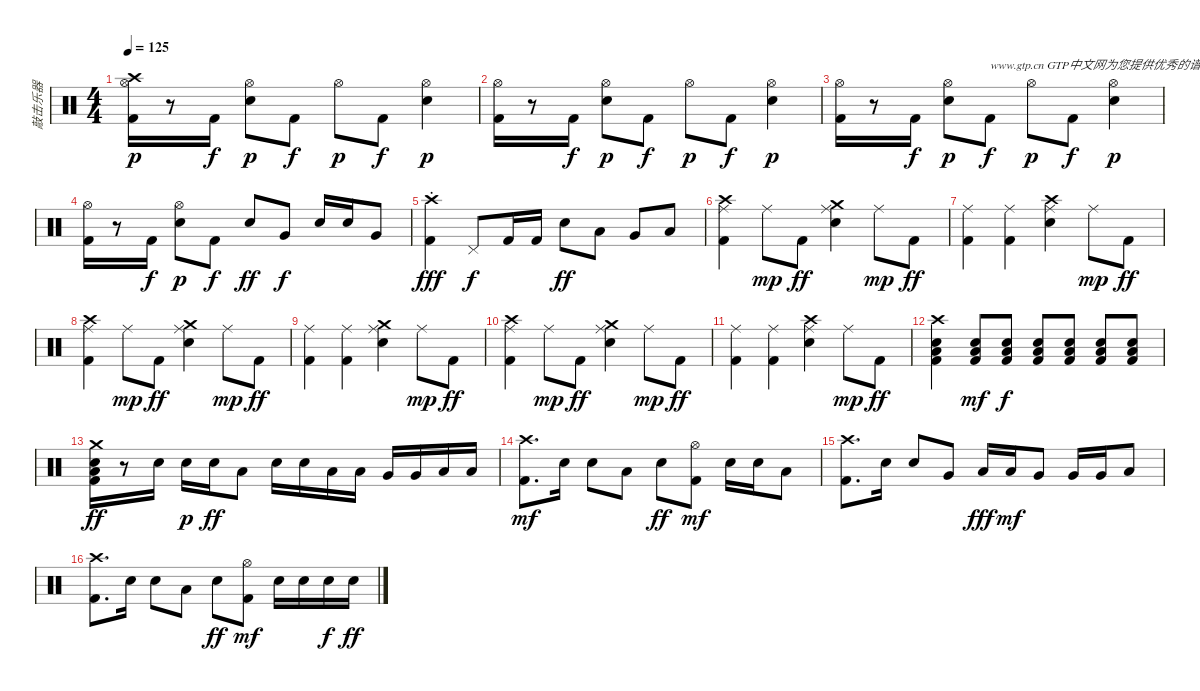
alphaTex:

\track ("敲击乐器" "敲击乐器") {instrument percussion}
\staff {score}
\articulation defaults
\ts (4 4)
\tempo 125
\clef neutral
\ks c
("Crash high (hit)" "Hi-Hat (open)" "Kick (hit) 2").16{dy p} r.8 "Kick (hit) 2".16{dy f} ("Hi-Hat (open)" "Snare (hit) 2").8{dy p} "Kick (hit) 2".8{dy f} "Hi-Hat (open)".8{dy p} "Kick (hit) 2".8{dy f} ("Hi-Hat (open)" "Snare (hit) 2").4{dy p} |
("Hi-Hat (open)" "Kick (hit) 2").16 r.8 "Kick (hit) 2".16{dy f} ("Hi-Hat (open)" "Snare (hit) 2").8{dy p} "Kick (hit) 2".8{dy f} "Hi-Hat (open)".8{dy p} "Kick (hit) 2".8{dy f} ("Hi-Hat (open)" "Snare (hit) 2").4{dy p} |
("Hi-Hat (open)" "Kick (hit) 2").16 r.8 "Kick (hit) 2".16{dy f} ("Hi-Hat (open)" "Snare (hit) 2").8{dy p} "Kick (hit) 2".8{txt "www.gtp.cn GTP中文网为您提供优秀的谱子" dy f} "Hi-Hat (open)".8{dy p} "Kick (hit) 2".8{dy f} ("Hi-Hat (open)" "Snare (hit) 2").4{dy p} |
("Hi-Hat (open)" "Kick (hit) 2").16 r.8 "Kick (hit) 2".16{dy f} ("Hi-Hat (open)" "Snare (hit) 2").8{dy p} "Kick (hit) 2".8{dy f} "Snare (hit) 2".8{dy ff} "Very Low Tom (hit)".8{dy f} "Snare (hit) 2".16 "Snare (hit) 2".16 "Very Low Tom (hit)".8 |
("Crash high (hit)"{st} "Kick (hit) 2"{st}).4{dy fff} "Pedal Hi-Hat (hit)".8{dy f} "Kick (hit) 2".16 "Kick (hit) 2".16 "Snare (hit) 2".8{dy ff} "Low Tom (hit)".8 "Very Low Tom (hit)".8 "Low Floor Tom (hit)".8 |
("Crash high (hit)" "Ride (middle)" "Kick (hit) 2").4 "Ride (middle)".8{dy mp} "Kick (hit) 2".8{dy ff} ("Crash medium (hit)" "Ride (middle)" "Snare (hit) 2").4 "Ride (middle)".8{dy mp} "Kick (hit) 2".8{dy ff} |
("Ride (middle)" "Kick (hit) 2").4 ("Ride (middle)" "Kick (hit) 2").4 ("Crash high (hit)" "Ride (middle)" "Snare (hit) 2").4 "Ride (middle)".8{dy mp} "Kick (hit) 2".8{dy ff} |
("Crash high (hit)" "Ride (middle)" "Kick (hit) 2").4 "Ride (middle)".8{dy mp} "Kick (hit) 2".8{dy ff} ("Crash medium (hit)" "Ride (middle)" "Snare (hit) 2").4 "Ride (middle)".8{dy mp} "Kick (hit) 2".8{dy ff} |
("Ride (middle)" "Kick (hit) 2").4 ("Ride (middle)" "Kick (hit) 2").4 ("Crash medium (hit)" "Ride (middle)" "Snare (hit) 2").4 "Ride (middle)".8{dy mp} "Kick (hit) 2".8{dy ff} |
("Crash high (hit)" "Ride (middle)" "Kick (hit) 2").4 "Ride (middle)".8{dy mp} "Kick (hit) 2".8{dy ff} ("Crash medium (hit)" "Ride (middle)" "Snare (hit) 2").4 "Ride (middle)".8{dy mp} "Kick (hit) 2".8{dy ff} |
("Ride (middle)" "Kick (hit) 2").4 ("Ride (middle)" "Kick (hit) 2").4 ("Crash high (hit)" "Ride (middle)" "Snare (hit) 2").4 "Ride (middle)".8{dy mp} "Kick (hit) 2".8{dy ff} |
("Crash high (hit)" "Snare (hit) 2" "Low Floor Tom (hit)" "Kick (hit) 2").4 ("Snare (hit) 2" "Low Floor Tom (hit)" "Kick (hit) 2").8{dy mf} ("Snare (hit) 2" "Low Floor Tom (hit)" "Kick (hit) 2").8{dy f} ("Snare (hit) 2" "Low Floor Tom (hit)" "Kick (hit) 2").8 ("Snare (hit) 2" "Low Floor Tom (hit)" "Kick (hit) 2").8 ("Snare (hit) 2" "Low Floor Tom (hit)" "Kick (hit) 2").8 ("Snare (hit) 2" "Low Floor Tom (hit)" "Kick (hit) 2").8 |
("Crash medium (hit)" "Snare (hit) 2" "Low Floor Tom (hit)" "Kick (hit) 2").16{dy ff} r.8 "Snare (hit) 2".16 "Snare (hit) 2".16{dy p} "Snare (hit) 2".16{dy ff} "Low Tom (hit)".8 "Snare (hit) 2".16 "Snare (hit) 2".16 "Low Tom (hit)".16 "Low Tom (hit)".16 "Very Low Tom (hit)".16 "Very Low Tom (hit)".16 "Low Floor Tom (hit)".16 "Low Floor Tom (hit)".16 |
("Crash high (hit)" "Kick (hit) 2").8{d dy mf} "Snare (hit) 2".16 "Snare (hit) 2".8 "Low Tom (hit)".8 "Snare (hit) 2".8{dy ff} ("Hi-Hat (open)" "Kick (hit) 2").8{dy mf} "Snare (hit) 2".16 "Snare (hit) 2".16 "Low Tom (hit)".8 |
("Crash high (hit)" "Kick (hit) 2").8{d} "Snare (hit) 2".16 "Snare (hit) 2".8 "Very Low Tom (hit)".8 "Low Tom (hit)".16{dy fff} "Low Tom (hit)".16{dy mf} "Very Low Tom (hit)".8 "Very Low Tom (hit)".16 "Very Low Tom (hit)".16 "Low Floor Tom (hit)".8 |
("Crash high (hit)" "Kick (hit) 2").8{d} "Snare (hit) 2".16 "Snare (hit) 2".8 "Low Tom (hit)".8 "Snare (hit) 2".8{dy ff} ("Hi-Hat (open)" "Kick (hit) 2").8{dy mf} "Snare (hit) 2".16 "Snare (hit) 2".16 "Snare (hit) 2".16{dy f} "Snare (hit) 2".16{dy ff}
